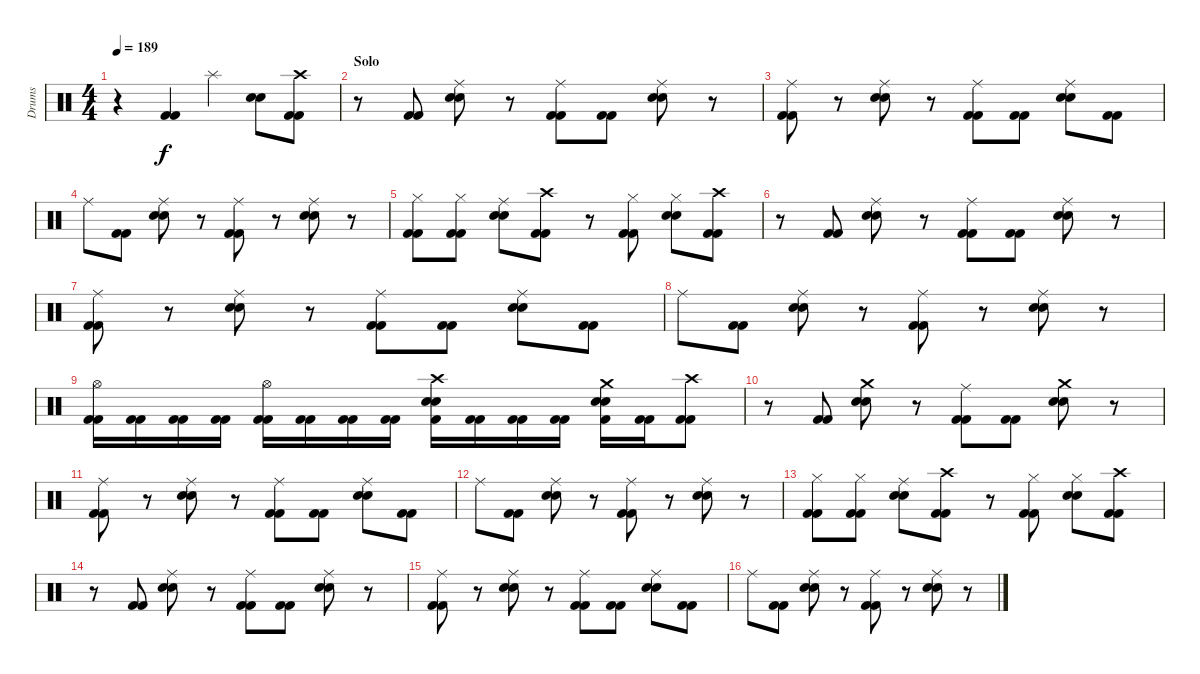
\track ("Drums" "Drums") {instrument percussion}
\staff {score}
\articulation defaults
\ts (4 4)
\tempo 189
\clef neutral
\ks c
r.4{dy f} ("Kick (hit) 2" "Kick (hit) 2").4 "Splash (hit)".4 ("Snare (hit) 2" "Snare (hit) 2").8 ("Crash high (hit)" "Kick (hit) 2" "Kick (hit) 2").8 |
\section ("" "Solo")
r.8 ("Kick (hit) 2" "Kick (hit) 2").8 ("Ride (middle)" "Snare (hit) 2" "Snare (hit) 2").8 r.8 ("Ride (middle)" "Kick (hit) 2" "Kick (hit) 2").8 ("Kick (hit) 2" "Kick (hit) 2").8 ("Ride (middle)" "Snare (hit) 2" "Snare (hit) 2").8 r.8 |
("Ride (middle)" "Kick (hit) 2" "Kick (hit) 2").8 r.8 ("Ride (middle)" "Snare (hit) 2" "Snare (hit) 2").8 r.8 ("Ride (middle)" "Kick (hit) 2" "Kick (hit) 2").8 ("Kick (hit) 2" "Kick (hit) 2").8 ("Ride (middle)" "Snare (hit) 2" "Snare (hit) 2").8 ("Kick (hit) 2" "Kick (hit) 2").8 |
"Ride (middle)".8 ("Kick (hit) 2" "Kick (hit) 2").8 ("Ride (middle)" "Snare (hit) 2" "Snare (hit) 2").8 r.8 ("Ride (middle)" "Kick (hit) 2" "Kick (hit) 2").8 r.8 ("Ride (middle)" "Snare (hit) 2" "Snare (hit) 2").8 r.8 |
("Hi-Hat (closed)" "Kick (hit) 2" "Kick (hit) 2").8 ("Hi-Hat (closed)" "Kick (hit) 2" "Kick (hit) 2").8 ("Ride (middle)" "Snare (hit) 2" "Snare (hit) 2").8 ("Crash high (hit)" "Kick (hit) 2" "Kick (hit) 2").8 r.8 ("Hi-Hat (closed)" "Kick (hit) 2" "Kick (hit) 2").8 ("Hi-Hat (closed)" "Snare (hit) 2" "Snare (hit) 2").8 ("Crash high (hit)" "Kick (hit) 2" "Kick (hit) 2").8 |
r.8 ("Kick (hit) 2" "Kick (hit) 2").8 ("Ride (middle)" "Snare (hit) 2" "Snare (hit) 2").8 r.8 ("Ride (middle)" "Kick (hit) 2" "Kick (hit) 2").8 ("Kick (hit) 2" "Kick (hit) 2").8 ("Ride (middle)" "Snare (hit) 2" "Snare (hit) 2").8 r.8 |
("Ride (middle)" "Kick (hit) 2" "Kick (hit) 2").8 r.8 ("Ride (middle)" "Snare (hit) 2" "Snare (hit) 2").8 r.8 ("Ride (middle)" "Kick (hit) 2" "Kick (hit) 2").8 ("Kick (hit) 2" "Kick (hit) 2").8 ("Ride (middle)" "Snare (hit) 2" "Snare (hit) 2").8 ("Kick (hit) 2" "Kick (hit) 2").8 |
"Ride (middle)".8 ("Kick (hit) 2" "Kick (hit) 2").8 ("Ride (middle)" "Snare (hit) 2" "Snare (hit) 2").8 r.8 ("Ride (middle)" "Kick (hit) 2" "Kick (hit) 2").8 r.8 ("Ride (middle)" "Snare (hit) 2" "Snare (hit) 2").8 r.8 |
("Hi-Hat (open)" "Kick (hit) 2" "Kick (hit) 2").16 ("Kick (hit) 2" "Kick (hit) 2").16 ("Kick (hit) 2" "Kick (hit) 2").16 ("Kick (hit) 2" "Kick (hit) 2").16 ("Hi-Hat (open)" "Kick (hit) 2" "Kick (hit) 2").16 ("Kick (hit) 2" "Kick (hit) 2").16 ("Kick (hit) 2" "Kick (hit) 2").16 ("Kick (hit) 2" "Kick (hit) 2").16 ("Crash high (hit)" "Snare (hit) 2" "Snare (hit) 2" "Kick (hit) 2").16 ("Kick (hit) 2" "Kick (hit) 2").16 ("Kick (hit) 2" "Kick (hit) 2").16 ("Kick (hit) 2" "Kick (hit) 2").16 ("Crash medium (hit)" "Snare (hit) 2" "Snare (hit) 2" "Kick (hit) 2").16 ("Kick (hit) 2" "Kick (hit) 2").16 ("Crash high (hit)" "Kick (hit) 2" "Kick (hit) 2").8 |
r.8 ("Kick (hit) 2" "Kick (hit) 2").8 ("Crash medium (hit)" "Snare (hit) 2" "Snare (hit) 2").8 r.8 ("Ride (middle)" "Kick (hit) 2" "Kick (hit) 2").8 ("Kick (hit) 2" "Kick (hit) 2").8 ("Crash medium (hit)" "Snare (hit) 2" "Snare (hit) 2").8 r.8 |
("Ride (middle)" "Kick (hit) 2" "Kick (hit) 2").8 r.8 ("Ride (middle)" "Snare (hit) 2" "Snare (hit) 2").8 r.8 ("Ride (middle)" "Kick (hit) 2" "Kick (hit) 2").8 ("Kick (hit) 2" "Kick (hit) 2").8 ("Ride (middle)" "Snare (hit) 2" "Snare (hit) 2").8 ("Kick (hit) 2" "Kick (hit) 2").8 |
"Ride (middle)".8 ("Kick (hit) 2" "Kick (hit) 2").8 ("Ride (middle)" "Snare (hit) 2" "Snare (hit) 2").8 r.8 ("Ride (middle)" "Kick (hit) 2" "Kick (hit) 2").8 r.8 ("Ride (middle)" "Snare (hit) 2" "Snare (hit) 2").8 r.8 |
("Hi-Hat (closed)" "Kick (hit) 2" "Kick (hit) 2").8 ("Hi-Hat (closed)" "Kick (hit) 2" "Kick (hit) 2").8 ("Ride (middle)" "Snare (hit) 2" "Snare (hit) 2").8 ("Crash high (hit)" "Kick (hit) 2" "Kick (hit) 2").8 r.8 ("Hi-Hat (closed)" "Kick (hit) 2" "Kick (hit) 2").8 ("Hi-Hat (closed)" "Snare (hit) 2" "Snare (hit) 2").8 ("Crash high (hit)" "Kick (hit) 2" "Kick (hit) 2").8 |
r.8 ("Kick (hit) 2" "Kick (hit) 2").8 ("Ride (middle)" "Snare (hit) 2" "Snare (hit) 2").8 r.8 ("Ride (middle)" "Kick (hit) 2" "Kick (hit) 2").8 ("Kick (hit) 2" "Kick (hit) 2").8 ("Ride (middle)" "Snare (hit) 2" "Snare (hit) 2").8 r.8 |
("Ride (middle)" "Kick (hit) 2" "Kick (hit) 2").8 r.8 ("Ride (middle)" "Snare (hit) 2" "Snare (hit) 2").8 r.8 ("Ride (middle)" "Kick (hit) 2" "Kick (hit) 2").8 ("Kick (hit) 2" "Kick (hit) 2").8 ("Ride (middle)" "Snare (hit) 2" "Snare (hit) 2").8 ("Kick (hit) 2" "Kick (hit) 2").8 |
"Ride (middle)".8 ("Kick (hit) 2" "Kick (hit) 2").8 ("Ride (middle)" "Snare (hit) 2" "Snare (hit) 2").8 r.8 ("Ride (middle)" "Kick (hit) 2" "Kick (hit) 2").8 r.8 ("Ride (middle)" "Snare (hit) 2" "Snare (hit) 2").8 r.8
